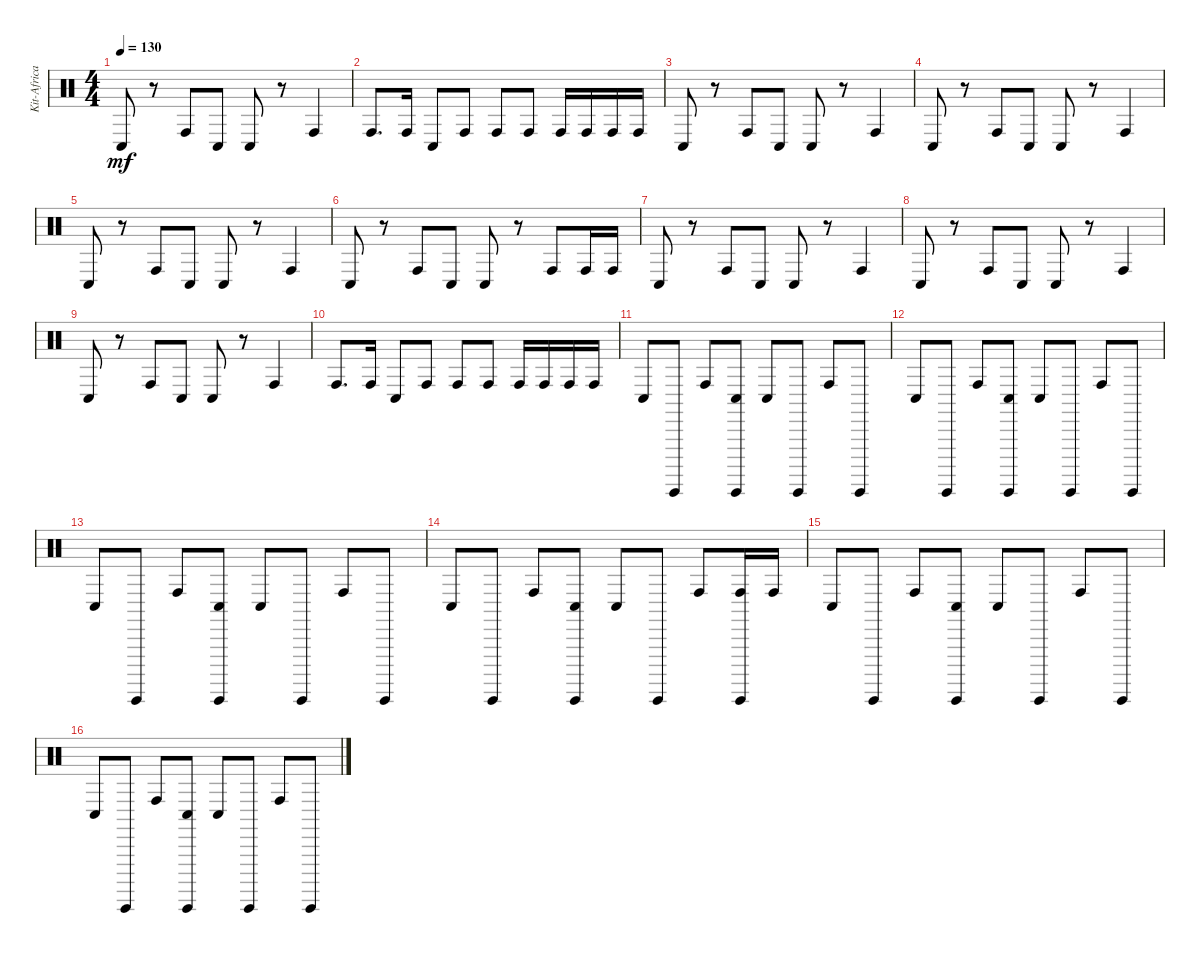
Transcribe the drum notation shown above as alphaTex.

\track ("Kit-Africa" "Kit-Africa") {instrument percussion}
\staff {score}
\articulation defaults
\ts (4 4)
\tempo 130
\clef neutral
\ks c "Conga low (hit)".8{dy mf}
r.8 "Conga high (hit)".8 "Conga low (hit)".8 "Conga low (hit)".8 r.8 "Conga high (hit)".4 |
"Conga high (hit)".8{d} "Conga high (hit)".16 "Conga low (hit)".8 "Conga high (hit)".8 "Conga high (hit)".8 "Conga high (hit)".8 "Conga high (hit)".16 "Conga high (hit)".16 "Conga high (hit)".16 "Conga high (hit)".16 |
"Conga low (hit)".8 r.8 "Conga high (hit)".8 "Conga low (hit)".8 "Conga low (hit)".8 r.8 "Conga high (hit)".4 |
"Conga low (hit)".8 r.8 "Conga high (hit)".8 "Conga low (hit)".8 "Conga low (hit)".8 r.8 "Conga high (hit)".4 |
"Conga low (hit)".8 r.8 "Conga high (hit)".8 "Conga low (hit)".8 "Conga low (hit)".8 r.8 "Conga high (hit)".4 |
"Conga low (hit)".8 r.8 "Conga high (hit)".8 "Conga low (hit)".8 "Conga low (hit)".8 r.8 "Conga high (hit)".8 "Conga high (hit)".16 "Conga high (hit)".16 |
"Conga low (hit)".8 r.8 "Conga high (hit)".8 "Conga low (hit)".8 "Conga low (hit)".8 r.8 "Conga high (hit)".4 |
"Conga low (hit)".8 r.8 "Conga high (hit)".8 "Conga low (hit)".8 "Conga low (hit)".8 r.8 "Conga high (hit)".4 |
"Conga low (hit)".8 r.8 "Conga high (hit)".8 "Conga low (hit)".8 "Conga low (hit)".8 r.8 "Conga high (hit)".4 |
"Conga high (hit)".8{d} "Conga high (hit)".16 "Conga low (hit)".8 "Conga high (hit)".8 "Conga high (hit)".8 "Conga high (hit)".8 "Conga high (hit)".16 "Conga high (hit)".16 "Conga high (hit)".16 "Conga high (hit)".16 |
"Conga low (hit)".8 "Guiro (hit)".8 "Conga high (hit)".8 ("Conga low (hit)" "Guiro (hit)").8 "Conga low (hit)".8 "Guiro (hit)".8 "Conga high (hit)".8 "Guiro (hit)".8 |
"Conga low (hit)".8 "Guiro (hit)".8 "Conga high (hit)".8 ("Conga low (hit)" "Guiro (hit)").8 "Conga low (hit)".8 "Guiro (hit)".8 "Conga high (hit)".8 "Guiro (hit)".8 |
"Conga low (hit)".8 "Guiro (hit)".8 "Conga high (hit)".8 ("Conga low (hit)" "Guiro (hit)").8 "Conga low (hit)".8 "Guiro (hit)".8 "Conga high (hit)".8 "Guiro (hit)".8 |
"Conga low (hit)".8 "Guiro (hit)".8 "Conga high (hit)".8 ("Conga low (hit)" "Guiro (hit)").8 "Conga low (hit)".8 "Guiro (hit)".8 "Conga high (hit)".8 ("Conga high (hit)" "Guiro (hit)").16 "Conga high (hit)".16 |
"Conga low (hit)".8 "Guiro (hit)".8 "Conga high (hit)".8 ("Conga low (hit)" "Guiro (hit)").8 "Conga low (hit)".8 "Guiro (hit)".8 "Conga high (hit)".8 "Guiro (hit)".8 |
"Conga low (hit)".8 "Guiro (hit)".8 "Conga high (hit)".8 ("Conga low (hit)" "Guiro (hit)").8 "Conga low (hit)".8 "Guiro (hit)".8 "Conga high (hit)".8 "Guiro (hit)".8
